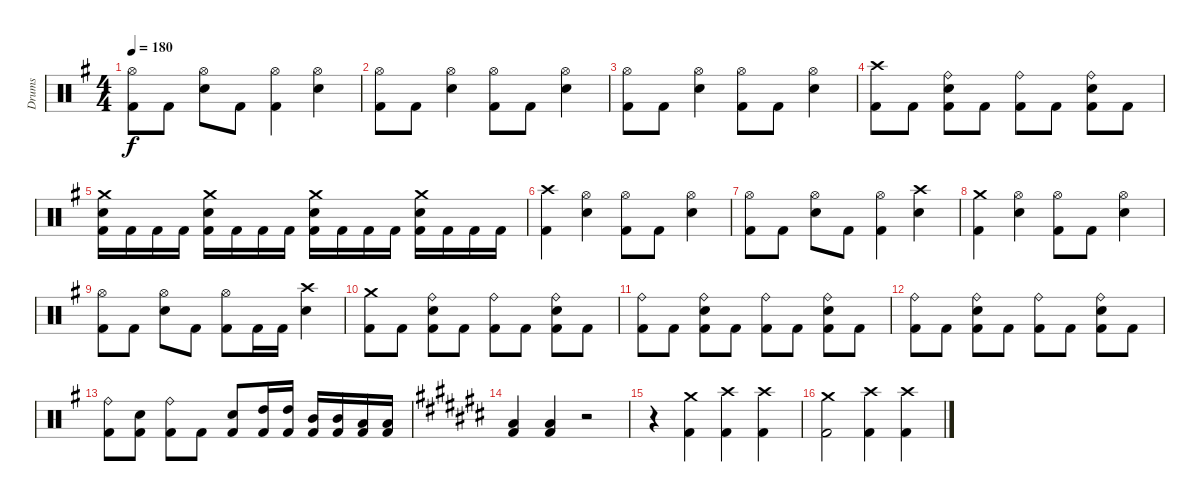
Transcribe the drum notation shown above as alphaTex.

\track ("Drums" "Drums") {instrument percussion}
\staff {score}
\articulation defaults
\ts (4 4)
\tempo 180
\clef neutral
\ks eminor
("Kick (hit) 2" "Hi-Hat (open)").8{dy f} "Kick (hit) 2".8 ("Electric Snare (hit)" "Hi-Hat (open)").8 "Kick (hit) 2".8 ("Kick (hit) 2" "Hi-Hat (open)").4 ("Electric Snare (hit)" "Hi-Hat (open)").4 |
("Kick (hit) 2" "Hi-Hat (open)").8 "Kick (hit) 2".8 ("Electric Snare (hit)" "Hi-Hat (open)").4 ("Kick (hit) 2" "Hi-Hat (open)").8 "Kick (hit) 2".8 ("Electric Snare (hit)" "Hi-Hat (open)").4 |
("Kick (hit) 2" "Hi-Hat (open)").8 "Kick (hit) 2".8 ("Electric Snare (hit)" "Hi-Hat (open)").4 ("Kick (hit) 2" "Hi-Hat (open)").8 "Kick (hit) 2".8 ("Electric Snare (hit)" "Hi-Hat (open)").4 |
("Kick (hit) 2" "Crash high (hit)").8 "Kick (hit) 2".8 ("Kick (hit) 2" "Electric Snare (hit)" "Ride (bell)").8 "Kick (hit) 2".8 ("Kick (hit) 2" "Ride (bell)").8 "Kick (hit) 2".8 ("Kick (hit) 2" "Electric Snare (hit)" "Ride (bell)").8 "Kick (hit) 2".8 |
("Kick (hit) 2" "Electric Snare (hit)" "Crash medium (hit)").16 "Kick (hit) 2".16 "Kick (hit) 2".16 "Kick (hit) 2".16 ("Kick (hit) 2" "Electric Snare (hit)" "Crash medium (hit)").16 "Kick (hit) 2".16 "Kick (hit) 2".16 "Kick (hit) 2".16 ("Kick (hit) 2" "Electric Snare (hit)" "Crash medium (hit)").16 "Kick (hit) 2".16 "Kick (hit) 2".16 "Kick (hit) 2".16 ("Kick (hit) 2" "Electric Snare (hit)" "Crash medium (hit)").16 "Kick (hit) 2".16 "Kick (hit) 2".16 "Kick (hit) 2".16 |
\section ("" "")
("Kick (hit) 2" "Crash high (hit)").4 ("Electric Snare (hit)" "Hi-Hat (open)").4 ("Kick (hit) 2" "Hi-Hat (open)").8 "Kick (hit) 2".8 ("Electric Snare (hit)" "Hi-Hat (open)").4 |
("Kick (hit) 2" "Hi-Hat (open)").8 "Kick (hit) 2".8 ("Electric Snare (hit)" "Hi-Hat (open)").8 "Kick (hit) 2".8 ("Kick (hit) 2" "Hi-Hat (open)").4 ("Electric Snare (hit)" "Crash high (hit)").4 |
("Kick (hit) 2" "Crash medium (hit)").4 ("Electric Snare (hit)" "Hi-Hat (open)").4 ("Kick (hit) 2" "Hi-Hat (open)").8 "Kick (hit) 2".8 ("Electric Snare (hit)" "Hi-Hat (open)").4 |
("Kick (hit) 2" "Hi-Hat (open)").8 "Kick (hit) 2".8 ("Electric Snare (hit)" "Hi-Hat (open)").8 "Kick (hit) 2".8 ("Kick (hit) 2" "Hi-Hat (open)").8 "Kick (hit) 2".16 "Kick (hit) 2".16 ("Electric Snare (hit)" "Crash high (hit)").4 |
("Kick (hit) 2" "Crash medium (hit)").8 "Kick (hit) 2".8 ("Kick (hit) 2" "Electric Snare (hit)" "Ride (bell)").8 "Kick (hit) 2".8 ("Kick (hit) 2" "Ride (bell)").8 "Kick (hit) 2".8 ("Kick (hit) 2" "Electric Snare (hit)" "Ride (bell)").8 "Kick (hit) 2".8 |
("Kick (hit) 2" "Ride (bell)").8 "Kick (hit) 2".8 ("Kick (hit) 2" "Electric Snare (hit)" "Ride (bell)").8 "Kick (hit) 2".8 ("Kick (hit) 2" "Ride (bell)").8 "Kick (hit) 2".8 ("Kick (hit) 2" "Electric Snare (hit)" "Ride (bell)").8 "Kick (hit) 2".8 |
("Kick (hit) 2" "Ride (bell)").8 "Kick (hit) 2".8 ("Kick (hit) 2" "Electric Snare (hit)" "Ride (bell)").8 "Kick (hit) 2".8 ("Kick (hit) 2" "Ride (bell)").8 "Kick (hit) 2".8 ("Kick (hit) 2" "Electric Snare (hit)" "Ride (bell)").8 "Kick (hit) 2".8 |
("Kick (hit) 2" "Ride (bell)").8 ("Kick (hit) 2" "Electric Snare (hit)").8 ("Kick (hit) 2" "Ride (bell)").8 "Kick (hit) 2".8 ("Kick (hit) 2" "Electric Snare (hit)").8 ("Kick (hit) 2" "High Tom (hit)").16 ("Kick (hit) 2" "High Tom (hit)").16 ("Kick (hit) 2" "Mid Tom (hit)").16 ("Kick (hit) 2" "Mid Tom (hit)").16 ("Kick (hit) 2" "Low Tom (hit)").16 ("Kick (hit) 2" "Low Tom (hit)").16 |
\section ("" "")
\ks a#minor
("Kick (hit) 2" "Low Floor Tom (hit)").4 ("Kick (hit) 2" "Low Floor Tom (hit)").4 r.2 |
r.4 ("Kick (hit) 2" "Crash medium (hit)").4 ("Kick (hit) 2" "Crash high (hit)").4 ("Kick (hit) 2" "Crash high (hit)").4 |
("Kick (hit) 2" "Crash medium (hit)").2 ("Kick (hit) 2" "Crash high (hit)").4 ("Kick (hit) 2" "Crash high (hit)").4
